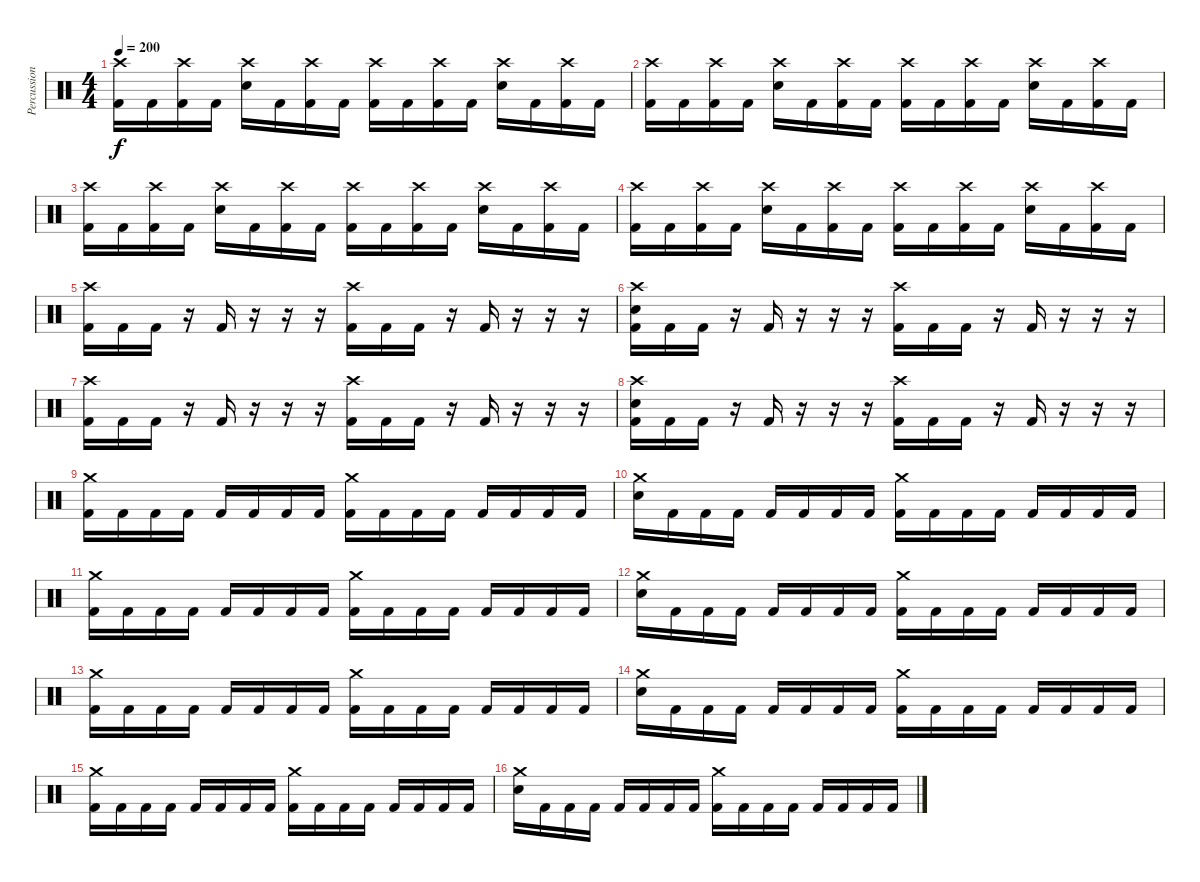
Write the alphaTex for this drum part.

\track ("Percussion" "Percussion") {instrument percussion}
\staff {score}
\articulation defaults
\ts (4 4)
\tempo 200
\clef neutral
\ks c
("Crash high (hit)" "Kick (hit) 2").16{dy f} "Kick (hit) 2".16 ("Crash high (hit)" "Kick (hit) 2").16 "Kick (hit) 2".16 ("Crash high (hit)" "Electric Snare (hit)").16 "Kick (hit) 2".16 ("Crash high (hit)" "Kick (hit) 2").16 "Kick (hit) 2".16 ("Crash high (hit)" "Kick (hit) 2").16 "Kick (hit) 2".16 ("Crash high (hit)" "Kick (hit) 2").16 "Kick (hit) 2".16 ("Crash high (hit)" "Electric Snare (hit)").16 "Kick (hit) 2".16 ("Crash high (hit)" "Kick (hit) 2").16 "Kick (hit) 2".16 |
("Crash high (hit)" "Kick (hit) 2").16 "Kick (hit) 2".16 ("Crash high (hit)" "Kick (hit) 2").16 "Kick (hit) 2".16 ("Crash high (hit)" "Electric Snare (hit)").16 "Kick (hit) 2".16 ("Crash high (hit)" "Kick (hit) 2").16 "Kick (hit) 2".16 ("Crash high (hit)" "Kick (hit) 2").16 "Kick (hit) 2".16 ("Crash high (hit)" "Kick (hit) 2").16 "Kick (hit) 2".16 ("Crash high (hit)" "Electric Snare (hit)").16 "Kick (hit) 2".16 ("Crash high (hit)" "Kick (hit) 2").16 "Kick (hit) 2".16 |
("Crash high (hit)" "Kick (hit) 2").16 "Kick (hit) 2".16 ("Crash high (hit)" "Kick (hit) 2").16 "Kick (hit) 2".16 ("Crash high (hit)" "Electric Snare (hit)").16 "Kick (hit) 2".16 ("Crash high (hit)" "Kick (hit) 2").16 "Kick (hit) 2".16 ("Crash high (hit)" "Kick (hit) 2").16 "Kick (hit) 2".16 ("Crash high (hit)" "Kick (hit) 2").16 "Kick (hit) 2".16 ("Crash high (hit)" "Electric Snare (hit)").16 "Kick (hit) 2".16 ("Crash high (hit)" "Kick (hit) 2").16 "Kick (hit) 2".16 |
("Crash high (hit)" "Kick (hit) 2").16 "Kick (hit) 2".16 ("Crash high (hit)" "Kick (hit) 2").16 "Kick (hit) 2".16 ("Crash high (hit)" "Electric Snare (hit)").16 "Kick (hit) 2".16 ("Crash high (hit)" "Kick (hit) 2").16 "Kick (hit) 2".16 ("Crash high (hit)" "Kick (hit) 2").16 "Kick (hit) 2".16 ("Crash high (hit)" "Kick (hit) 2").16 "Kick (hit) 2".16 ("Crash high (hit)" "Electric Snare (hit)").16 "Kick (hit) 2".16 ("Crash high (hit)" "Kick (hit) 2").16 "Kick (hit) 2".16 |
("Crash high (hit)" "Kick (hit) 2").16 "Kick (hit) 2".16 "Kick (hit) 2".16 r.16 "Kick (hit) 2".16 r.16 r.16 r.16 ("Crash high (hit)" "Kick (hit) 2").16 "Kick (hit) 2".16 "Kick (hit) 2".16 r.16 "Kick (hit) 2".16 r.16 r.16 r.16 |
("Crash high (hit)" "Electric Snare (hit)" "Kick (hit) 2").16 "Kick (hit) 2".16 "Kick (hit) 2".16 r.16 "Kick (hit) 2".16 r.16 r.16 r.16 ("Crash high (hit)" "Kick (hit) 2").16 "Kick (hit) 2".16 "Kick (hit) 2".16 r.16 "Kick (hit) 2".16 r.16 r.16 r.16 |
("Crash high (hit)" "Kick (hit) 2").16 "Kick (hit) 2".16 "Kick (hit) 2".16 r.16 "Kick (hit) 2".16 r.16 r.16 r.16 ("Crash high (hit)" "Kick (hit) 2").16 "Kick (hit) 2".16 "Kick (hit) 2".16 r.16 "Kick (hit) 2".16 r.16 r.16 r.16 |
("Crash high (hit)" "Electric Snare (hit)" "Kick (hit) 2").16 "Kick (hit) 2".16 "Kick (hit) 2".16 r.16 "Kick (hit) 2".16 r.16 r.16 r.16 ("Crash high (hit)" "Kick (hit) 2").16 "Kick (hit) 2".16 "Kick (hit) 2".16 r.16 "Kick (hit) 2".16 r.16 r.16 r.16 |
("Crash medium (hit)" "Kick (hit) 2").16 "Kick (hit) 2".16 "Kick (hit) 2".16 "Kick (hit) 2".16 "Kick (hit) 2".16 "Kick (hit) 2".16 "Kick (hit) 2".16 "Kick (hit) 2".16 ("Crash medium (hit)" "Kick (hit) 2").16 "Kick (hit) 2".16 "Kick (hit) 2".16 "Kick (hit) 2".16 "Kick (hit) 2".16 "Kick (hit) 2".16 "Kick (hit) 2".16 "Kick (hit) 2".16 |
("Crash medium (hit)" "Electric Snare (hit)").16 "Kick (hit) 2".16 "Kick (hit) 2".16 "Kick (hit) 2".16 "Kick (hit) 2".16 "Kick (hit) 2".16 "Kick (hit) 2".16 "Kick (hit) 2".16 ("Crash medium (hit)" "Kick (hit) 2").16 "Kick (hit) 2".16 "Kick (hit) 2".16 "Kick (hit) 2".16 "Kick (hit) 2".16 "Kick (hit) 2".16 "Kick (hit) 2".16 "Kick (hit) 2".16 |
("Crash medium (hit)" "Kick (hit) 2").16 "Kick (hit) 2".16 "Kick (hit) 2".16 "Kick (hit) 2".16 "Kick (hit) 2".16 "Kick (hit) 2".16 "Kick (hit) 2".16 "Kick (hit) 2".16 ("Crash medium (hit)" "Kick (hit) 2").16 "Kick (hit) 2".16 "Kick (hit) 2".16 "Kick (hit) 2".16 "Kick (hit) 2".16 "Kick (hit) 2".16 "Kick (hit) 2".16 "Kick (hit) 2".16 |
("Crash medium (hit)" "Electric Snare (hit)").16 "Kick (hit) 2".16 "Kick (hit) 2".16 "Kick (hit) 2".16 "Kick (hit) 2".16 "Kick (hit) 2".16 "Kick (hit) 2".16 "Kick (hit) 2".16 ("Crash medium (hit)" "Kick (hit) 2").16 "Kick (hit) 2".16 "Kick (hit) 2".16 "Kick (hit) 2".16 "Kick (hit) 2".16 "Kick (hit) 2".16 "Kick (hit) 2".16 "Kick (hit) 2".16 |
("Crash medium (hit)" "Kick (hit) 2").16 "Kick (hit) 2".16 "Kick (hit) 2".16 "Kick (hit) 2".16 "Kick (hit) 2".16 "Kick (hit) 2".16 "Kick (hit) 2".16 "Kick (hit) 2".16 ("Crash medium (hit)" "Kick (hit) 2").16 "Kick (hit) 2".16 "Kick (hit) 2".16 "Kick (hit) 2".16 "Kick (hit) 2".16 "Kick (hit) 2".16 "Kick (hit) 2".16 "Kick (hit) 2".16 |
("Crash medium (hit)" "Electric Snare (hit)").16 "Kick (hit) 2".16 "Kick (hit) 2".16 "Kick (hit) 2".16 "Kick (hit) 2".16 "Kick (hit) 2".16 "Kick (hit) 2".16 "Kick (hit) 2".16 ("Crash medium (hit)" "Kick (hit) 2").16 "Kick (hit) 2".16 "Kick (hit) 2".16 "Kick (hit) 2".16 "Kick (hit) 2".16 "Kick (hit) 2".16 "Kick (hit) 2".16 "Kick (hit) 2".16 |
("Crash medium (hit)" "Kick (hit) 2").16 "Kick (hit) 2".16 "Kick (hit) 2".16 "Kick (hit) 2".16 "Kick (hit) 2".16 "Kick (hit) 2".16 "Kick (hit) 2".16 "Kick (hit) 2".16 ("Crash medium (hit)" "Kick (hit) 2").16 "Kick (hit) 2".16 "Kick (hit) 2".16 "Kick (hit) 2".16 "Kick (hit) 2".16 "Kick (hit) 2".16 "Kick (hit) 2".16 "Kick (hit) 2".16 |
("Crash medium (hit)" "Electric Snare (hit)").16 "Kick (hit) 2".16 "Kick (hit) 2".16 "Kick (hit) 2".16 "Kick (hit) 2".16 "Kick (hit) 2".16 "Kick (hit) 2".16 "Kick (hit) 2".16 ("Crash medium (hit)" "Kick (hit) 2").16 "Kick (hit) 2".16 "Kick (hit) 2".16 "Kick (hit) 2".16 "Kick (hit) 2".16 "Kick (hit) 2".16 "Kick (hit) 2".16 "Kick (hit) 2".16
